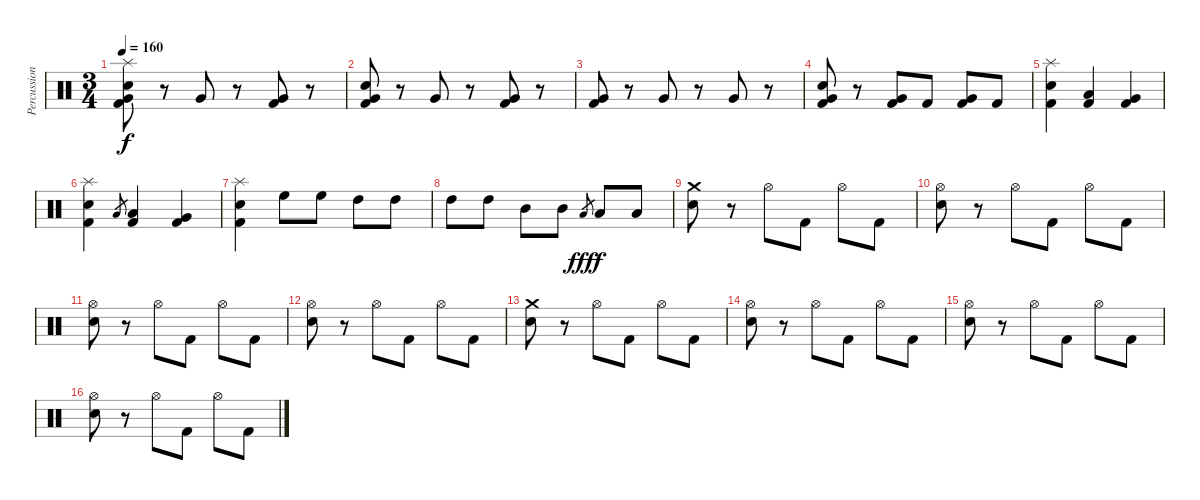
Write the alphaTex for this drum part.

\track ("Percussion" "Percussion") {instrument percussion}
\staff {score}
\articulation defaults
\ts (3 4)
\tempo 160
\clef neutral
\ks c
("Splash (hit)" "Snare (hit) 2" "Kick (hit) 2" "Very Low Tom (hit)").8{dy f} r.8 "Very Low Tom (hit)".8 r.8 ("Kick (hit) 2" "Very Low Tom (hit)").8 r.8 |
("Snare (hit) 2" "Kick (hit) 2" "Very Low Tom (hit)").8 r.8 "Very Low Tom (hit)".8 r.8 ("Kick (hit) 2" "Very Low Tom (hit)").8 r.8 |
("Kick (hit) 2" "Very Low Tom (hit)").8 r.8 "Very Low Tom (hit)".8 r.8 "Very Low Tom (hit)".8 r.8 |
("Snare (hit) 2" "Kick (hit) 2" "Very Low Tom (hit)").8 r.8 ("Kick (hit) 2" "Very Low Tom (hit)").8 "Kick (hit) 2".8 ("Kick (hit) 2" "Very Low Tom (hit)").8 "Kick (hit) 2".8 |
("Splash (hit)" "Snare (hit) 2" "Kick (hit) 2").4 ("Low Tom (hit)" "Kick (hit) 2").4 ("Very Low Tom (hit)" "Kick (hit) 2").4 |
("Splash (hit)" "Snare (hit) 2" "Kick (hit) 2").4 "Low Tom (hit)".8{gr} ("Low Tom (hit)" "Kick (hit) 2").4 ("Very Low Tom (hit)" "Kick (hit) 2").4 |
("Splash (hit)" "Snare (hit) 2" "Kick (hit) 2").4 "High Floor Tom (hit)".8 "High Floor Tom (hit)".8 "High Tom (hit)".8 "High Tom (hit)".8 |
"High Tom (hit)".8 "High Tom (hit)".8 "Mid Tom (hit)".8 "Mid Tom (hit)".8 "Low Tom (hit)".8{gr dy fff} "Low Tom (hit)".8{dy f} "Low Tom (hit)".8 |
("Crash medium (hit)" "Snare (hit) 2").8 r.8 "Hi-Hat (open)".8 "Kick (hit) 2".8 "Hi-Hat (open)".8 "Kick (hit) 2".8 |
("Hi-Hat (open)" "Snare (hit) 2").8 r.8 "Hi-Hat (open)".8 "Kick (hit) 2".8 "Hi-Hat (open)".8 "Kick (hit) 2".8 |
("Hi-Hat (open)" "Snare (hit) 2").8 r.8 "Hi-Hat (open)".8 "Kick (hit) 2".8 "Hi-Hat (open)".8 "Kick (hit) 2".8 |
("Hi-Hat (open)" "Snare (hit) 2").8 r.8 "Hi-Hat (open)".8 "Kick (hit) 2".8 "Hi-Hat (open)".8 "Kick (hit) 2".8 |
("Crash medium (hit)" "Snare (hit) 2").8 r.8 "Hi-Hat (open)".8 "Kick (hit) 2".8 "Hi-Hat (open)".8 "Kick (hit) 2".8 |
("Hi-Hat (open)" "Snare (hit) 2").8 r.8 "Hi-Hat (open)".8 "Kick (hit) 2".8 "Hi-Hat (open)".8 "Kick (hit) 2".8 |
("Hi-Hat (open)" "Snare (hit) 2").8 r.8 "Hi-Hat (open)".8 "Kick (hit) 2".8 "Hi-Hat (open)".8 "Kick (hit) 2".8 |
("Hi-Hat (open)" "Snare (hit) 2").8 r.8 "Hi-Hat (open)".8 "Kick (hit) 2".8 "Hi-Hat (open)".8 "Kick (hit) 2".8
